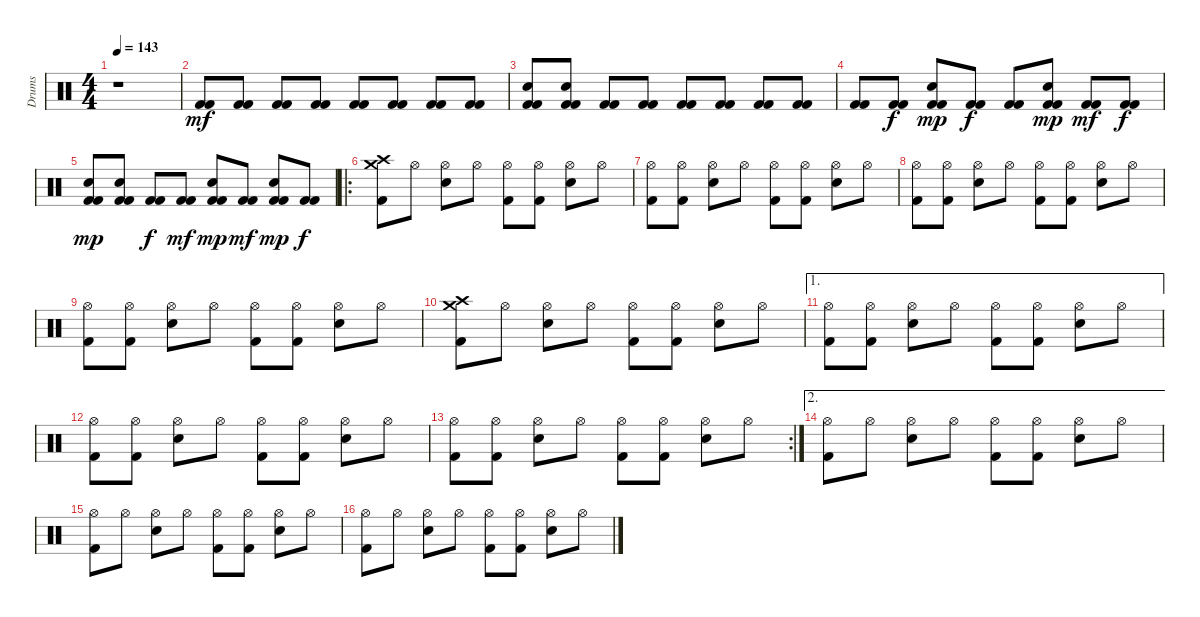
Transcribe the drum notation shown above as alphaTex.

\track ("Drums" "Drums") {instrument percussion}
\staff {score}
\articulation defaults
\ts (4 4)
\tempo 143
\clef neutral
\ks c
r.1{dy mp} |
("Kick (hit) 2" "Kick (hit) 2").8{dy mf} ("Kick (hit) 2" "Kick (hit) 2").8 ("Kick (hit) 2" "Kick (hit) 2").8 ("Kick (hit) 2" "Kick (hit) 2").8 ("Kick (hit) 2" "Kick (hit) 2").8 ("Kick (hit) 2" "Kick (hit) 2").8 ("Kick (hit) 2" "Kick (hit) 2").8 ("Kick (hit) 2" "Kick (hit) 2").8 |
("Snare (hit) 2" "Kick (hit) 2" "Kick (hit) 2").8 ("Snare (hit) 2" "Kick (hit) 2" "Kick (hit) 2").8 ("Kick (hit) 2" "Kick (hit) 2").8 ("Kick (hit) 2" "Kick (hit) 2").8 ("Kick (hit) 2" "Kick (hit) 2").8 ("Kick (hit) 2" "Kick (hit) 2").8 ("Kick (hit) 2" "Kick (hit) 2").8 ("Kick (hit) 2" "Kick (hit) 2").8 |
("Kick (hit) 2" "Kick (hit) 2").8 ("Kick (hit) 2" "Kick (hit) 2").8{dy f} ("Snare (hit) 2" "Kick (hit) 2" "Kick (hit) 2").8{dy mp} ("Kick (hit) 2" "Kick (hit) 2").8{dy f} ("Kick (hit) 2" "Kick (hit) 2").8 ("Snare (hit) 2" "Kick (hit) 2" "Kick (hit) 2").8{dy mp} ("Kick (hit) 2" "Kick (hit) 2").8{dy mf} ("Kick (hit) 2" "Kick (hit) 2").8{dy f} |
("Snare (hit) 2" "Kick (hit) 2" "Kick (hit) 2").8{dy mp} ("Snare (hit) 2" "Kick (hit) 2" "Kick (hit) 2").8 ("Kick (hit) 2" "Kick (hit) 2").8{dy f} ("Kick (hit) 2" "Kick (hit) 2").8{dy mf} ("Snare (hit) 2" "Kick (hit) 2" "Kick (hit) 2").8{dy mp} ("Kick (hit) 2" "Kick (hit) 2").8{dy mf} ("Snare (hit) 2" "Kick (hit) 2" "Kick (hit) 2").8{dy mp} ("Kick (hit) 2" "Kick (hit) 2").8{dy f} |
\ro
("Crash high (hit)" "Crash medium (hit)" "Kick (hit) 2").8 "Hi-Hat (open)".8 ("Hi-Hat (open)" "Snare (hit) 2").8 "Hi-Hat (open)".8 ("Hi-Hat (open)" "Kick (hit) 2").8 ("Hi-Hat (open)" "Kick (hit) 2").8 ("Hi-Hat (open)" "Snare (hit) 2").8 "Hi-Hat (open)".8 |
("Hi-Hat (open)" "Kick (hit) 2").8 ("Hi-Hat (open)" "Kick (hit) 2").8 ("Hi-Hat (open)" "Snare (hit) 2").8 "Hi-Hat (open)".8 ("Hi-Hat (open)" "Kick (hit) 2").8 ("Hi-Hat (open)" "Kick (hit) 2").8 ("Hi-Hat (open)" "Snare (hit) 2").8 "Hi-Hat (open)".8 |
("Hi-Hat (open)" "Kick (hit) 2").8 ("Hi-Hat (open)" "Kick (hit) 2").8 ("Hi-Hat (open)" "Snare (hit) 2").8 "Hi-Hat (open)".8 ("Hi-Hat (open)" "Kick (hit) 2").8 ("Hi-Hat (open)" "Kick (hit) 2").8 ("Hi-Hat (open)" "Snare (hit) 2").8 "Hi-Hat (open)".8 |
("Hi-Hat (open)" "Kick (hit) 2").8 ("Hi-Hat (open)" "Kick (hit) 2").8 ("Hi-Hat (open)" "Snare (hit) 2").8 "Hi-Hat (open)".8 ("Hi-Hat (open)" "Kick (hit) 2").8 ("Hi-Hat (open)" "Kick (hit) 2").8 ("Hi-Hat (open)" "Snare (hit) 2").8 "Hi-Hat (open)".8 |
("Crash high (hit)" "Crash medium (hit)" "Kick (hit) 2").8 "Hi-Hat (open)".8 ("Hi-Hat (open)" "Snare (hit) 2").8 "Hi-Hat (open)".8 ("Hi-Hat (open)" "Kick (hit) 2").8 ("Hi-Hat (open)" "Kick (hit) 2").8 ("Hi-Hat (open)" "Snare (hit) 2").8 "Hi-Hat (open)".8 |
\ae 1
("Hi-Hat (open)" "Kick (hit) 2").8 ("Hi-Hat (open)" "Kick (hit) 2").8 ("Hi-Hat (open)" "Snare (hit) 2").8 "Hi-Hat (open)".8 ("Hi-Hat (open)" "Kick (hit) 2").8 ("Hi-Hat (open)" "Kick (hit) 2").8 ("Hi-Hat (open)" "Snare (hit) 2").8 "Hi-Hat (open)".8 |
("Hi-Hat (open)" "Kick (hit) 2").8 ("Hi-Hat (open)" "Kick (hit) 2").8 ("Hi-Hat (open)" "Snare (hit) 2").8 "Hi-Hat (open)".8 ("Hi-Hat (open)" "Kick (hit) 2").8 ("Hi-Hat (open)" "Kick (hit) 2").8 ("Hi-Hat (open)" "Snare (hit) 2").8 "Hi-Hat (open)".8 |
\rc 2
("Hi-Hat (open)" "Kick (hit) 2").8 ("Hi-Hat (open)" "Kick (hit) 2").8 ("Hi-Hat (open)" "Snare (hit) 2").8 "Hi-Hat (open)".8 ("Hi-Hat (open)" "Kick (hit) 2").8 ("Hi-Hat (open)" "Kick (hit) 2").8 ("Hi-Hat (open)" "Snare (hit) 2").8 "Hi-Hat (open)".8 |
\ae 2
("Hi-Hat (open)" "Kick (hit) 2").8 "Hi-Hat (open)".8 ("Hi-Hat (open)" "Snare (hit) 2").8 "Hi-Hat (open)".8 ("Hi-Hat (open)" "Kick (hit) 2").8 ("Hi-Hat (open)" "Kick (hit) 2").8 ("Hi-Hat (open)" "Snare (hit) 2").8 "Hi-Hat (open)".8 |
("Hi-Hat (open)" "Kick (hit) 2").8 "Hi-Hat (open)".8 ("Hi-Hat (open)" "Snare (hit) 2").8 "Hi-Hat (open)".8 ("Hi-Hat (open)" "Kick (hit) 2").8 ("Hi-Hat (open)" "Kick (hit) 2").8 ("Hi-Hat (open)" "Snare (hit) 2").8 "Hi-Hat (open)".8 |
("Hi-Hat (open)" "Kick (hit) 2").8 "Hi-Hat (open)".8 ("Hi-Hat (open)" "Snare (hit) 2").8 "Hi-Hat (open)".8 ("Hi-Hat (open)" "Kick (hit) 2").8 ("Hi-Hat (open)" "Kick (hit) 2").8 ("Hi-Hat (open)" "Snare (hit) 2").8 "Hi-Hat (open)".8
